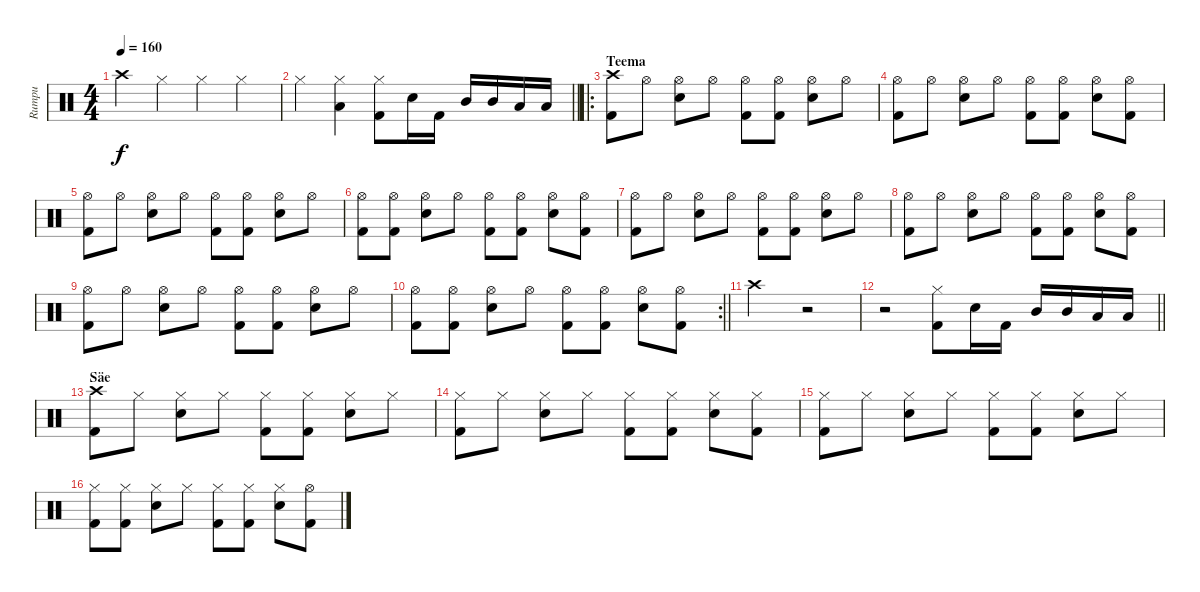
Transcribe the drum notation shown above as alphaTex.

\track ("Rumpu" "Rumpu") {instrument percussion}
\staff {score}
\articulation defaults
\ts (4 4)
\tempo 160
\clef neutral
\ks c "Crash high (hit)".4{dy f} "Hi-Hat (closed)".4 "Hi-Hat (closed)".4 "Hi-Hat (closed)".4
|
\barLineRight lightlight "Hi-Hat (closed)".4
("Hi-Hat (closed)" "Low Floor Tom (hit)").4 ("Hi-Hat (closed)" "Kick (hit) 2").8 "Snare (hit) 2".16 "Kick (hit) 2".16 "Mid Tom (hit)".16 "Mid Tom (hit)".16 "Low Tom (hit)".16 "Low Tom (hit)".16 |
\ro
\section ("" "Teema")
("Crash high (hit)" "Kick (hit) 2").8 "Hi-Hat (open)".8 ("Hi-Hat (open)" "Snare (hit) 2").8 "Hi-Hat (open)".8 ("Hi-Hat (open)" "Kick (hit) 2").8 ("Hi-Hat (open)" "Kick (hit) 2").8 ("Hi-Hat (open)" "Snare (hit) 2").8 "Hi-Hat (open)".8 |
("Hi-Hat (open)" "Kick (hit) 2").8 "Hi-Hat (open)".8 ("Hi-Hat (open)" "Snare (hit) 2").8 "Hi-Hat (open)".8 ("Hi-Hat (open)" "Kick (hit) 2").8 ("Hi-Hat (open)" "Kick (hit) 2").8 ("Hi-Hat (open)" "Snare (hit) 2").8 ("Hi-Hat (open)" "Kick (hit) 2").8 |
("Hi-Hat (open)" "Kick (hit) 2").8 "Hi-Hat (open)".8 ("Hi-Hat (open)" "Snare (hit) 2").8 "Hi-Hat (open)".8 ("Hi-Hat (open)" "Kick (hit) 2").8 ("Hi-Hat (open)" "Kick (hit) 2").8 ("Hi-Hat (open)" "Snare (hit) 2").8 "Hi-Hat (open)".8 |
("Hi-Hat (open)" "Kick (hit) 2").8 ("Hi-Hat (open)" "Kick (hit) 2").8 ("Hi-Hat (open)" "Snare (hit) 2").8 "Hi-Hat (open)".8 ("Hi-Hat (open)" "Kick (hit) 2").8 ("Hi-Hat (open)" "Kick (hit) 2").8 ("Hi-Hat (open)" "Snare (hit) 2").8 ("Hi-Hat (open)" "Kick (hit) 2").8 |
("Hi-Hat (open)" "Kick (hit) 2").8 "Hi-Hat (open)".8 ("Hi-Hat (open)" "Snare (hit) 2").8 "Hi-Hat (open)".8 ("Hi-Hat (open)" "Kick (hit) 2").8 ("Hi-Hat (open)" "Kick (hit) 2").8 ("Hi-Hat (open)" "Snare (hit) 2").8 "Hi-Hat (open)".8 |
("Hi-Hat (open)" "Kick (hit) 2").8 "Hi-Hat (open)".8 ("Hi-Hat (open)" "Snare (hit) 2").8 "Hi-Hat (open)".8 ("Hi-Hat (open)" "Kick (hit) 2").8 ("Hi-Hat (open)" "Kick (hit) 2").8 ("Hi-Hat (open)" "Snare (hit) 2").8 ("Hi-Hat (open)" "Kick (hit) 2").8 |
("Hi-Hat (open)" "Kick (hit) 2").8 "Hi-Hat (open)".8 ("Hi-Hat (open)" "Snare (hit) 2").8 "Hi-Hat (open)".8 ("Hi-Hat (open)" "Kick (hit) 2").8 ("Hi-Hat (open)" "Kick (hit) 2").8 ("Hi-Hat (open)" "Snare (hit) 2").8 "Hi-Hat (open)".8 |
\rc 2
\barLineRight lightlight
("Hi-Hat (open)" "Kick (hit) 2").8 ("Hi-Hat (open)" "Kick (hit) 2").8 ("Hi-Hat (open)" "Snare (hit) 2").8 "Hi-Hat (open)".8 ("Hi-Hat (open)" "Kick (hit) 2").8 ("Hi-Hat (open)" "Kick (hit) 2").8 ("Hi-Hat (open)" "Snare (hit) 2").8 ("Hi-Hat (open)" "Kick (hit) 2").8 |
"Crash high (hit)".2 r.2 |
\barLineRight lightlight
r.2 ("Hi-Hat (closed)" "Kick (hit) 2").8 "Snare (hit) 2".16 "Kick (hit) 2".16 "Mid Tom (hit)".16 "Mid Tom (hit)".16 "Low Tom (hit)".16 "Low Tom (hit)".16 |
\section ("" "Säe")
("Crash high (hit)" "Kick (hit) 2").8 "Hi-Hat (closed)".8 ("Hi-Hat (closed)" "Snare (hit) 2").8 "Hi-Hat (closed)".8 ("Hi-Hat (closed)" "Kick (hit) 2").8 ("Hi-Hat (closed)" "Kick (hit) 2").8 ("Hi-Hat (closed)" "Snare (hit) 2").8 "Hi-Hat (closed)".8 |
("Hi-Hat (closed)" "Kick (hit) 2").8 "Hi-Hat (closed)".8 ("Hi-Hat (closed)" "Snare (hit) 2").8 "Hi-Hat (closed)".8 ("Hi-Hat (closed)" "Kick (hit) 2").8 ("Hi-Hat (closed)" "Kick (hit) 2").8 ("Hi-Hat (closed)" "Snare (hit) 2").8 ("Hi-Hat (closed)" "Kick (hit) 2").8 |
("Hi-Hat (closed)" "Kick (hit) 2").8 "Hi-Hat (closed)".8 ("Hi-Hat (closed)" "Snare (hit) 2").8 "Hi-Hat (closed)".8 ("Hi-Hat (closed)" "Kick (hit) 2").8 ("Hi-Hat (closed)" "Kick (hit) 2").8 ("Hi-Hat (closed)" "Snare (hit) 2").8 "Hi-Hat (closed)".8 |
("Hi-Hat (closed)" "Kick (hit) 2").8 ("Hi-Hat (closed)" "Kick (hit) 2").8 ("Hi-Hat (closed)" "Snare (hit) 2").8 "Hi-Hat (closed)".8 ("Hi-Hat (closed)" "Kick (hit) 2").8 ("Hi-Hat (closed)" "Kick (hit) 2").8 ("Hi-Hat (closed)" "Snare (hit) 2").8 ("Hi-Hat (open)" "Kick (hit) 2").8
